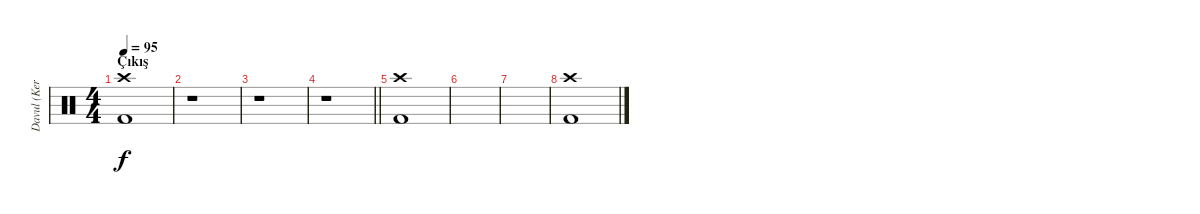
\track ("Davul (Kerem Kabadayı)" "Davul (Ker") {instrument percussion}
\staff {score}
\articulation defaults
\ts (4 4)
\section ("" "Çıkış")
\tempo 95
\clef neutral
\ks c
("Crash high (hit)" "Kick (hit) 2").1{dy f} |
r.1 |
r.1 |
\barLineRight lightlight
r.1 |
("Crash high (hit)" "Kick (hit) 2").1 |
|
|
("Crash high (hit)" "Kick (hit) 2").1
